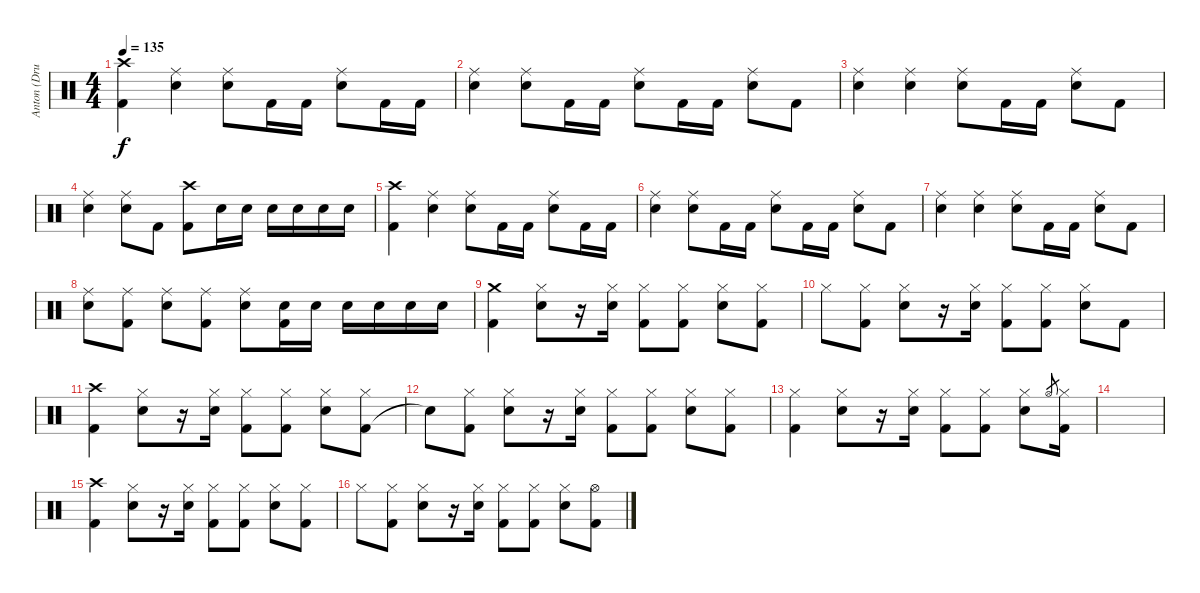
\track ("Anton (Drum)" "Anton (Dru") {instrument percussion}
\staff {score}
\articulation defaults
\ts (4 4)
\tempo 135
\clef neutral
\ks c
("Kick (hit) 2" "Crash high (hit)").4{dy f} ("Snare (hit) 2" "Ride (middle)").4 ("Snare (hit) 2" "Ride (middle)").8 "Kick (hit) 2".16 "Kick (hit) 2".16 ("Snare (hit) 2" "Ride (middle)").8 "Kick (hit) 2".16 "Kick (hit) 2".16 |
("Snare (hit) 2" "Ride (middle)").4 ("Snare (hit) 2" "Ride (middle)").8 "Kick (hit) 2".16 "Kick (hit) 2".16 ("Snare (hit) 2" "Ride (middle)").8 "Kick (hit) 2".16 "Kick (hit) 2".16 ("Snare (hit) 2" "Ride (middle)").8 "Kick (hit) 2".8 |
("Snare (hit) 2" "Ride (middle)").4 ("Snare (hit) 2" "Ride (middle)").4 ("Snare (hit) 2" "Ride (middle)").8 "Kick (hit) 2".16 "Kick (hit) 2".16 ("Snare (hit) 2" "Ride (middle)").8 "Kick (hit) 2".8 |
("Snare (hit) 2" "Ride (middle)").4 ("Snare (hit) 2" "Ride (middle)").8 "Kick (hit) 2".8 ("Kick (hit) 2" "Crash high (hit)").8 "Snare (hit) 2".16 "Snare (hit) 2".16 "Snare (hit) 2".16 "Snare (hit) 2".16 "Snare (hit) 2".16 "Snare (hit) 2".16 |
("Kick (hit) 2" "Crash high (hit)").4 ("Snare (hit) 2" "Ride (middle)").4 ("Snare (hit) 2" "Ride (middle)").8 "Kick (hit) 2".16 "Kick (hit) 2".16 ("Snare (hit) 2" "Ride (middle)").8 "Kick (hit) 2".16 "Kick (hit) 2".16 |
("Snare (hit) 2" "Ride (middle)").4 ("Snare (hit) 2" "Ride (middle)").8 "Kick (hit) 2".16 "Kick (hit) 2".16 ("Snare (hit) 2" "Ride (middle)").8 "Kick (hit) 2".16 "Kick (hit) 2".16 ("Snare (hit) 2" "Ride (middle)").8 "Kick (hit) 2".8 |
("Snare (hit) 2" "Ride (middle)").4 ("Snare (hit) 2" "Ride (middle)").4 ("Snare (hit) 2" "Ride (middle)").8 "Kick (hit) 2".16 "Kick (hit) 2".16 ("Snare (hit) 2" "Ride (middle)").8 "Kick (hit) 2".8 |
("Snare (hit) 2" "Ride (middle)").8 ("Kick (hit) 2" "Ride (middle)").8 ("Snare (hit) 2" "Ride (middle)").8 ("Kick (hit) 2" "Ride (middle)").8 ("Snare (hit) 2" "Ride (middle)").8 ("Kick (hit) 2" "Snare (hit) 2").16 "Snare (hit) 2".16 "Snare (hit) 2".16 "Snare (hit) 2".16 "Snare (hit) 2".16 "Snare (hit) 2".16 |
("Kick (hit) 2" "Crash medium (hit)").4 ("Snare (hit) 2" "Hi-Hat (closed)").8 r.16 ("Snare (hit) 2" "Hi-Hat (closed)").16 ("Kick (hit) 2" "Hi-Hat (closed)").8 ("Kick (hit) 2" "Hi-Hat (closed)").8 ("Snare (hit) 2" "Hi-Hat (closed)").8 ("Kick (hit) 2" "Hi-Hat (closed)").8 |
"Hi-Hat (closed)".8 ("Kick (hit) 2" "Hi-Hat (closed)").8 ("Snare (hit) 2" "Hi-Hat (closed)").8 r.16 ("Snare (hit) 2" "Hi-Hat (closed)").16 ("Kick (hit) 2" "Hi-Hat (closed)").8 ("Kick (hit) 2" "Hi-Hat (closed)").8 ("Snare (hit) 2" "Hi-Hat (closed)").8 "Kick (hit) 2".8 |
("Crash high (hit)" "Kick (hit) 2").4 ("Snare (hit) 2" "Hi-Hat (closed)").8 r.16 ("Snare (hit) 2" "Hi-Hat (closed)").16 ("Kick (hit) 2" "Hi-Hat (closed)").8 ("Kick (hit) 2" "Hi-Hat (closed)").8 ("Snare (hit) 2" "Hi-Hat (closed)").8 ("Kick (hit) 2" "Hi-Hat (closed)").8 |
"Snare (hit)"{t}.8 ("Kick (hit) 2" "Hi-Hat (closed)").8 ("Snare (hit) 2" "Hi-Hat (closed)").8 r.16 ("Snare (hit) 2" "Hi-Hat (closed)").16 ("Kick (hit) 2" "Hi-Hat (closed)").8 ("Kick (hit) 2" "Hi-Hat (closed)").8 ("Snare (hit) 2" "Hi-Hat (closed)").8 ("Kick (hit) 2" "Hi-Hat (closed)").8 |
("Kick (hit) 2" "Hi-Hat (closed)").4 ("Snare (hit) 2" "Hi-Hat (closed)").8 r.16 ("Snare (hit) 2" "Hi-Hat (closed)").16 ("Kick (hit) 2" "Hi-Hat (closed)").8 ("Kick (hit) 2" "Hi-Hat (closed)").8 ("Snare (hit) 2" "Hi-Hat (closed)").8 "Hi-Hat (open)".8{gr} ("Kick (hit) 2" "Hi-Hat (closed)").16 |
|
("Crash high (hit)" "Kick (hit) 2").4 ("Snare (hit) 2" "Hi-Hat (closed)").8 r.16 ("Snare (hit) 2" "Hi-Hat (closed)").16 ("Kick (hit) 2" "Hi-Hat (closed)").8 ("Kick (hit) 2" "Hi-Hat (closed)").8 ("Snare (hit) 2" "Hi-Hat (closed)").8 ("Kick (hit) 2" "Hi-Hat (closed)").8 |
"Hi-Hat (closed)".8 ("Kick (hit) 2" "Hi-Hat (closed)").8 ("Snare (hit) 2" "Hi-Hat (closed)").8 r.16 ("Snare (hit) 2" "Hi-Hat (closed)").16 ("Kick (hit) 2" "Hi-Hat (closed)").8 ("Kick (hit) 2" "Hi-Hat (closed)").8 ("Snare (hit) 2" "Hi-Hat (closed)").8 ("Kick (hit) 2" "Hi-Hat (open)").8
